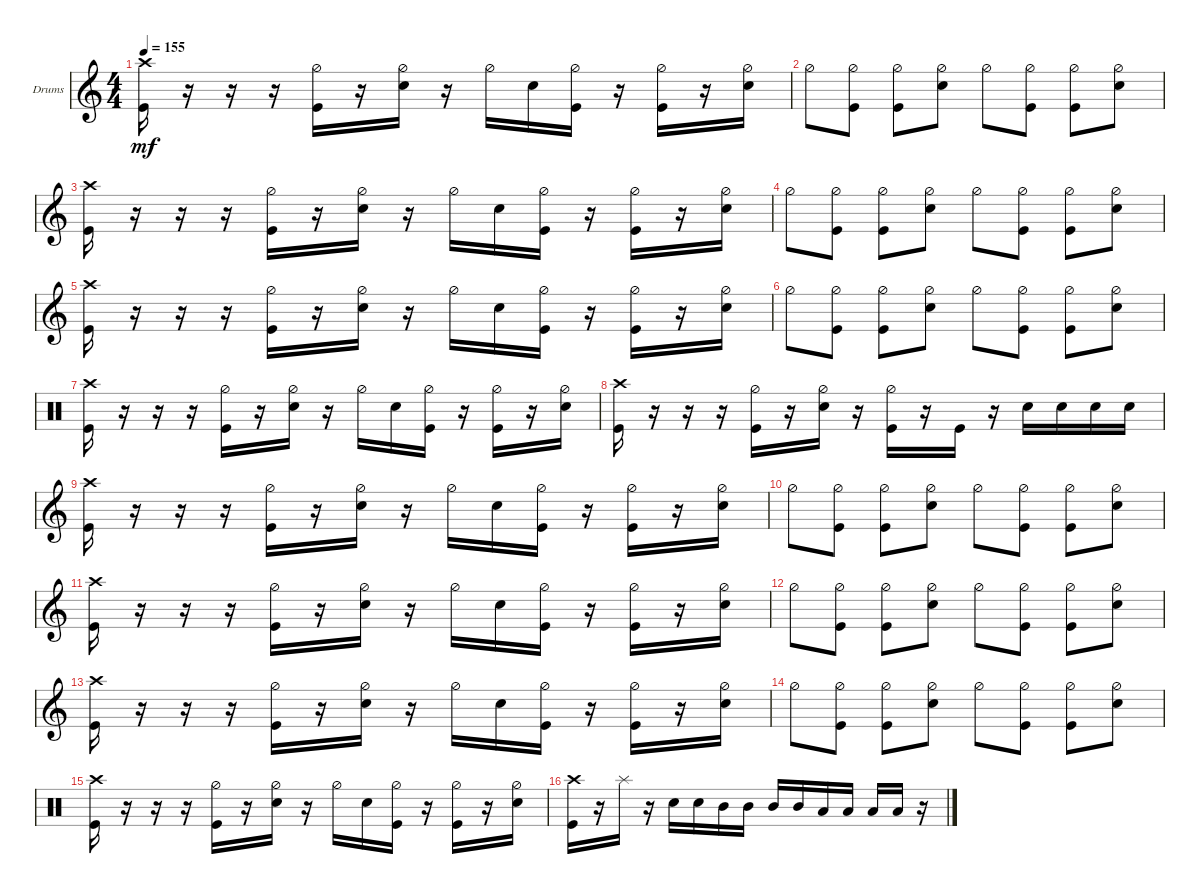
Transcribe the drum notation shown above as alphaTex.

\defaultSystemsLayout 4
\bracketExtendMode groupsimilarinstruments
\firstSystemTrackNameOrientation horizontal
\otherSystemsTrackNameOrientation horizontal
\track ("Drumkit" "Drums") {instrument percussion}
\staff {score}
\articulation defaults
\ts (4 4)
\tempo 155
\clef g2
\ks c
("Kick (hit)" "Crash high (hit)").16{dy mf} r.16 r.16 r.16 ("Kick (hit)" "Hi-Hat (half)").16 r.16 ("Snare (hit) 2" "Hi-Hat (half)").16 r.16 "Hi-Hat (half)".16 "Snare (hit) 2".16 ("Kick (hit)" "Hi-Hat (half)").16 r.16 ("Kick (hit)" "Hi-Hat (half)").16 r.16 ("Snare (hit) 2" "Hi-Hat (half)").16 |
"Hi-Hat (half)".8 ("Kick (hit)" "Hi-Hat (half)").8 ("Kick (hit)" "Hi-Hat (half)").8 ("Snare (hit) 2" "Hi-Hat (half)").8 "Hi-Hat (half)".8 ("Kick (hit)" "Hi-Hat (half)").8 ("Kick (hit)" "Hi-Hat (half)").8 ("Snare (hit) 2" "Hi-Hat (half)").8 |
("Kick (hit)" "Crash high (hit)").16 r.16 r.16 r.16 ("Kick (hit)" "Hi-Hat (half)").16 r.16 ("Snare (hit) 2" "Hi-Hat (half)").16 r.16 "Hi-Hat (half)".16 "Snare (hit) 2".16 ("Kick (hit)" "Hi-Hat (half)").16 r.16 ("Kick (hit)" "Hi-Hat (half)").16 r.16 ("Snare (hit) 2" "Hi-Hat (half)").16 |
"Hi-Hat (half)".8 ("Kick (hit)" "Hi-Hat (half)").8 ("Kick (hit)" "Hi-Hat (half)").8 ("Snare (hit) 2" "Hi-Hat (half)").8 "Hi-Hat (half)".8 ("Kick (hit)" "Hi-Hat (half)").8 ("Kick (hit)" "Hi-Hat (half)").8 ("Snare (hit) 2" "Hi-Hat (half)").8 |
("Kick (hit)" "Crash high (hit)").16 r.16 r.16 r.16 ("Kick (hit)" "Hi-Hat (half)").16 r.16 ("Snare (hit) 2" "Hi-Hat (half)").16 r.16 "Hi-Hat (half)".16 "Snare (hit) 2".16 ("Kick (hit)" "Hi-Hat (half)").16 r.16 ("Kick (hit)" "Hi-Hat (half)").16 r.16 ("Snare (hit) 2" "Hi-Hat (half)").16 |
"Hi-Hat (half)".8 ("Kick (hit)" "Hi-Hat (half)").8 ("Kick (hit)" "Hi-Hat (half)").8 ("Snare (hit) 2" "Hi-Hat (half)").8 "Hi-Hat (half)".8 ("Kick (hit)" "Hi-Hat (half)").8 ("Kick (hit)" "Hi-Hat (half)").8 ("Snare (hit) 2" "Hi-Hat (half)").8 |
\clef neutral
("Kick (hit)" "Crash high (hit)").16 r.16 r.16 r.16 ("Kick (hit)" "Hi-Hat (half)").16 r.16 ("Snare (hit) 2" "Hi-Hat (half)").16 r.16 "Hi-Hat (half)".16 "Snare (hit) 2".16 ("Kick (hit)" "Hi-Hat (half)").16 r.16 ("Kick (hit)" "Hi-Hat (half)").16 r.16 ("Snare (hit) 2" "Hi-Hat (half)").16 |
("Kick (hit)" "Crash high (hit)").16 r.16 r.16 r.16 ("Kick (hit)" "Hi-Hat (half)").16 r.16 ("Snare (hit) 2" "Hi-Hat (half)").16 r.16 ("Kick (hit)" "Hi-Hat (half)").16 r.16 "Kick (hit)".16 r.16 "Snare (hit) 2".16 "Snare (hit) 2".16 "Snare (hit) 2".16 "Snare (hit) 2".16 |
\clef g2
("Kick (hit)" "Crash high (hit)").16 r.16 r.16 r.16 ("Kick (hit)" "Hi-Hat (half)").16 r.16 ("Snare (hit) 2" "Hi-Hat (half)").16 r.16 "Hi-Hat (half)".16 "Snare (hit) 2".16 ("Kick (hit)" "Hi-Hat (half)").16 r.16 ("Kick (hit)" "Hi-Hat (half)").16 r.16 ("Snare (hit) 2" "Hi-Hat (half)").16 |
"Hi-Hat (half)".8 ("Kick (hit)" "Hi-Hat (half)").8 ("Kick (hit)" "Hi-Hat (half)").8 ("Snare (hit) 2" "Hi-Hat (half)").8 "Hi-Hat (half)".8 ("Kick (hit)" "Hi-Hat (half)").8 ("Kick (hit)" "Hi-Hat (half)").8 ("Snare (hit) 2" "Hi-Hat (half)").8 |
("Kick (hit)" "Crash high (hit)").16 r.16 r.16 r.16 ("Kick (hit)" "Hi-Hat (half)").16 r.16 ("Snare (hit) 2" "Hi-Hat (half)").16 r.16 "Hi-Hat (half)".16 "Snare (hit) 2".16 ("Kick (hit)" "Hi-Hat (half)").16 r.16 ("Kick (hit)" "Hi-Hat (half)").16 r.16 ("Snare (hit) 2" "Hi-Hat (half)").16 |
"Hi-Hat (half)".8 ("Kick (hit)" "Hi-Hat (half)").8 ("Kick (hit)" "Hi-Hat (half)").8 ("Snare (hit) 2" "Hi-Hat (half)").8 "Hi-Hat (half)".8 ("Kick (hit)" "Hi-Hat (half)").8 ("Kick (hit)" "Hi-Hat (half)").8 ("Snare (hit) 2" "Hi-Hat (half)").8 |
("Kick (hit)" "Crash high (hit)").16 r.16 r.16 r.16 ("Kick (hit)" "Hi-Hat (half)").16 r.16 ("Snare (hit) 2" "Hi-Hat (half)").16 r.16 "Hi-Hat (half)".16 "Snare (hit) 2".16 ("Kick (hit)" "Hi-Hat (half)").16 r.16 ("Kick (hit)" "Hi-Hat (half)").16 r.16 ("Snare (hit) 2" "Hi-Hat (half)").16 |
"Hi-Hat (half)".8 ("Kick (hit)" "Hi-Hat (half)").8 ("Kick (hit)" "Hi-Hat (half)").8 ("Snare (hit) 2" "Hi-Hat (half)").8 "Hi-Hat (half)".8 ("Kick (hit)" "Hi-Hat (half)").8 ("Kick (hit)" "Hi-Hat (half)").8 ("Snare (hit) 2" "Hi-Hat (half)").8 |
\clef neutral
("Kick (hit)" "Crash high (hit)").16 r.16 r.16 r.16 ("Kick (hit)" "Hi-Hat (half)").16 r.16 ("Snare (hit) 2" "Hi-Hat (half)").16 r.16 "Hi-Hat (half)".16 "Snare (hit) 2".16 ("Kick (hit)" "Hi-Hat (half)").16 r.16 ("Kick (hit)" "Hi-Hat (half)").16 r.16 ("Snare (hit) 2" "Hi-Hat (half)").16 |
("Kick (hit)" "Crash high (hit)").16 r.16 "Splash (hit)".16 r.16 "Snare (hit) 2".16 "Snare (hit) 2".16 "Mid Tom (hit)".16 "Mid Tom (hit)".16 "Mid Tom (hit)".16 "Mid Tom (hit)".16 "Low Tom (hit)".16 "Low Tom (hit)".16 "Low Tom (hit)".16 "Low Tom (hit)".16 r.16
